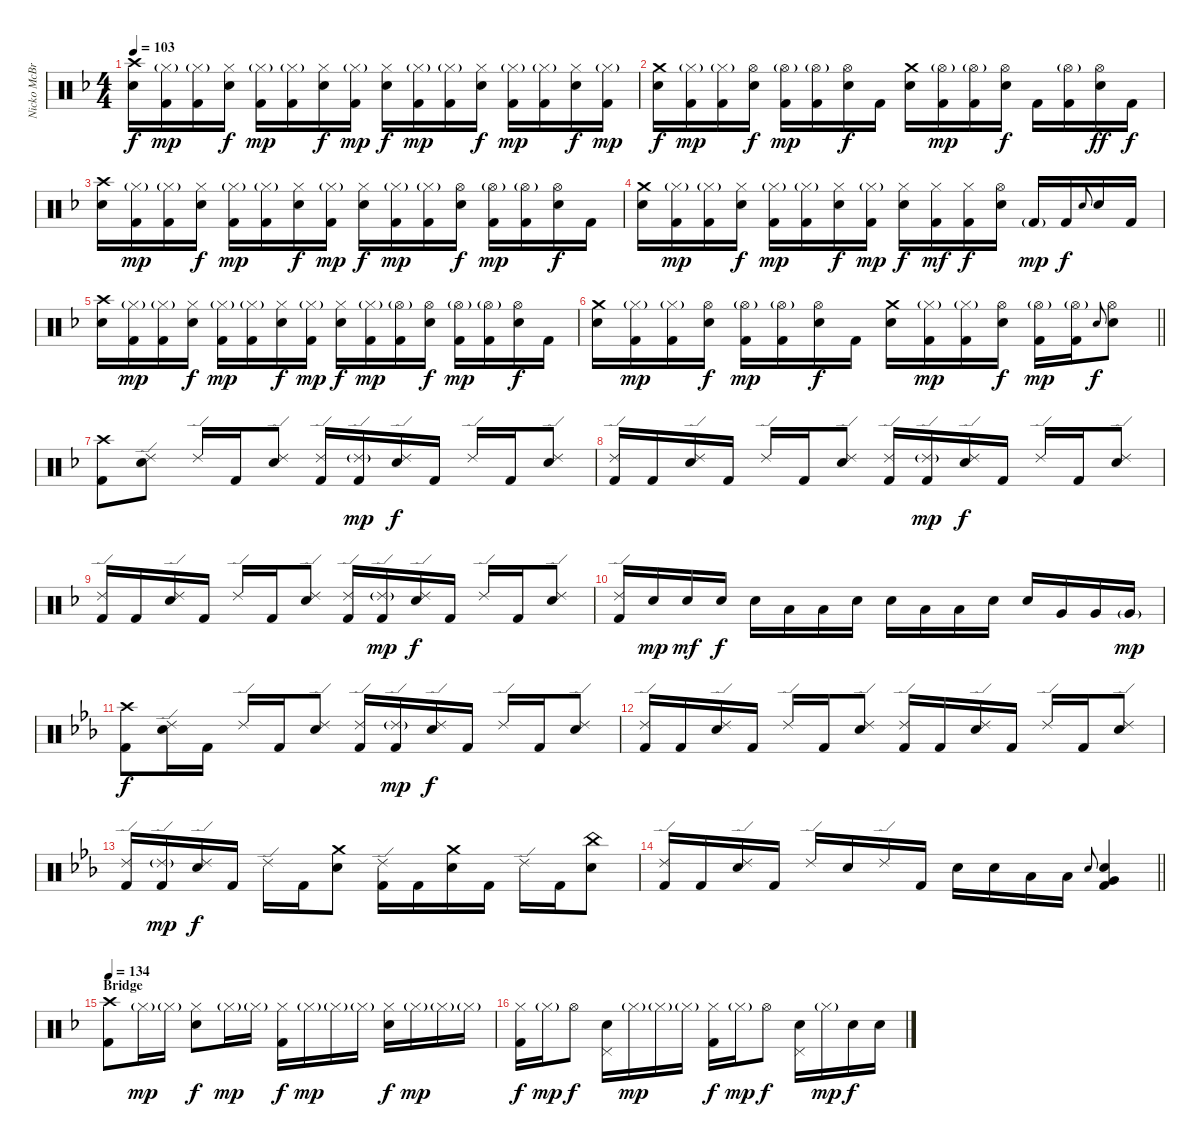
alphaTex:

\track ("Nicko McBrain" "Nicko McBr") {instrument percussion}
\staff {score}
\articulation defaults
\ts (4 4)
\tempo 103
\clef neutral
\ks dminor
("Crash high (hit)" "Electric Snare (hit)").16{dy f} ("Hi-Hat (closed)"{g} "Kick (hit) 2").16{dy mp} ("Hi-Hat (closed)"{g} "Kick (hit) 2").16 ("Hi-Hat (closed)" "Electric Snare (hit)").16{dy f} ("Hi-Hat (closed)"{g} "Kick (hit) 2").16{dy mp} ("Hi-Hat (closed)"{g} "Kick (hit) 2").16 ("Hi-Hat (closed)" "Electric Snare (hit)").16{dy f} ("Hi-Hat (closed)"{g} "Kick (hit) 2").16{dy mp} ("Hi-Hat (closed)" "Electric Snare (hit)").16{dy f} ("Hi-Hat (closed)"{g} "Kick (hit) 2").16{dy mp} ("Hi-Hat (closed)"{g} "Kick (hit) 2").16 ("Hi-Hat (closed)" "Electric Snare (hit)").16{dy f} ("Hi-Hat (closed)"{g} "Kick (hit) 2").16{dy mp} ("Hi-Hat (closed)"{g} "Kick (hit) 2").16 ("Hi-Hat (closed)" "Electric Snare (hit)").16{dy f} ("Hi-Hat (closed)"{g} "Kick (hit) 2").16{dy mp} |
("Crash medium (hit)" "Electric Snare (hit)").16{dy f} ("Hi-Hat (closed)"{g} "Kick (hit) 2").16{dy mp} ("Hi-Hat (closed)"{g} "Kick (hit) 2").16 ("Hi-Hat (open)" "Electric Snare (hit)").16{dy f} ("Hi-Hat (open)"{g} "Kick (hit) 2").16{dy mp} ("Hi-Hat (open)"{g} "Kick (hit) 2").16 ("Hi-Hat (open)" "Electric Snare (hit)").16{dy f} "Kick (hit) 2".16 ("Crash medium (hit)" "Electric Snare (hit)").16 ("Hi-Hat (open)"{g} "Kick (hit) 2").16{dy mp} ("Hi-Hat (open)"{g} "Kick (hit) 2").16 ("Hi-Hat (open)" "Electric Snare (hit)").16{dy f} "Kick (hit) 2".16 ("Hi-Hat (open)"{g} "Kick (hit) 2").16 ("Hi-Hat (open)" "Electric Snare (hit)").16{dy ff} "Kick (hit) 2".16{dy f} |
("Crash high (hit)" "Electric Snare (hit)").16 ("Hi-Hat (closed)"{g} "Kick (hit) 2").16{dy mp} ("Hi-Hat (closed)"{g} "Kick (hit) 2").16 ("Hi-Hat (closed)" "Electric Snare (hit)").16{dy f} ("Hi-Hat (closed)"{g} "Kick (hit) 2").16{dy mp} ("Hi-Hat (closed)"{g} "Kick (hit) 2").16 ("Hi-Hat (closed)" "Electric Snare (hit)").16{dy f} ("Hi-Hat (closed)"{g} "Kick (hit) 2").16{dy mp} ("Hi-Hat (closed)" "Electric Snare (hit)").16{dy f} ("Hi-Hat (closed)"{g} "Kick (hit) 2").16{dy mp} ("Hi-Hat (closed)"{g} "Kick (hit) 2").16 ("Hi-Hat (open)" "Electric Snare (hit)").16{dy f} ("Hi-Hat (open)"{g} "Kick (hit) 2").16{dy mp} ("Hi-Hat (open)"{g} "Kick (hit) 2").16 ("Hi-Hat (open)" "Electric Snare (hit)").16{dy f} "Kick (hit) 2".16 |
("Crash medium (hit)" "Electric Snare (hit)").16 ("Hi-Hat (closed)"{g} "Kick (hit) 2").16{dy mp} ("Hi-Hat (closed)"{g} "Kick (hit) 2").16 ("Hi-Hat (closed)" "Electric Snare (hit)").16{dy f} ("Hi-Hat (closed)"{g} "Kick (hit) 2").16{dy mp} ("Hi-Hat (closed)"{g} "Kick (hit) 2").16 ("Hi-Hat (closed)" "Electric Snare (hit)").16{dy f} ("Hi-Hat (closed)"{g} "Kick (hit) 2").16{dy mp} ("Hi-Hat (closed)" "Electric Snare (hit)").16{dy f} ("Hi-Hat (closed)" "Kick (hit) 2").16{dy mf} ("Hi-Hat (closed)" "Kick (hit) 2").16{dy f} ("Hi-Hat (open)" "Electric Snare (hit)").16 "Kick (hit) 2"{g}.16{dy mp} "Kick (hit) 2".16{dy f} "Electric Snare (hit)".8{gr onbeat} "Electric Snare (hit)".16 "Kick (hit) 2".16 |
("Crash high (hit)" "Electric Snare (hit)").16 ("Hi-Hat (closed)"{g} "Kick (hit) 2").16{dy mp} ("Hi-Hat (closed)"{g} "Kick (hit) 2").16 ("Hi-Hat (closed)" "Electric Snare (hit)").16{dy f} ("Hi-Hat (closed)"{g} "Kick (hit) 2").16{dy mp} ("Hi-Hat (closed)"{g} "Kick (hit) 2").16 ("Hi-Hat (closed)" "Electric Snare (hit)").16{dy f} ("Hi-Hat (closed)"{g} "Kick (hit) 2").16{dy mp} ("Hi-Hat (closed)" "Electric Snare (hit)").16{dy f} ("Hi-Hat (closed)"{g} "Kick (hit) 2").16{dy mp} ("Hi-Hat (open)"{g} "Kick (hit) 2").16 ("Hi-Hat (open)" "Electric Snare (hit)").16{dy f} ("Hi-Hat (open)"{g} "Kick (hit) 2").16{dy mp} ("Hi-Hat (open)"{g} "Kick (hit) 2").16 ("Hi-Hat (open)" "Electric Snare (hit)").16{dy f} "Kick (hit) 2".16 |
\barLineRight lightlight
("Crash medium (hit)" "Electric Snare (hit)").16 ("Hi-Hat (closed)"{g} "Kick (hit) 2").16{dy mp} ("Hi-Hat (closed)"{g} "Kick (hit) 2").16 ("Hi-Hat (open)" "Electric Snare (hit)").16{dy f} ("Hi-Hat (open)"{g} "Kick (hit) 2").16{dy mp} ("Hi-Hat (open)"{g} "Kick (hit) 2").16 ("Hi-Hat (open)" "Electric Snare (hit)").16{dy f} "Kick (hit) 2".16 ("Crash medium (hit)" "Electric Snare (hit)").16 ("Hi-Hat (closed)"{g} "Kick (hit) 2").16{dy mp} ("Hi-Hat (closed)"{g} "Kick (hit) 2").16 ("Hi-Hat (open)" "Electric Snare (hit)").16{dy f} ("Hi-Hat (open)"{g} "Kick (hit) 2").16{dy mp} ("Hi-Hat (open)"{g} "Kick (hit) 2").16 "Electric Snare (hit)".8{gr onbeat dy f} ("Hi-Hat (open)" "Electric Snare (hit)").8 |
\section ("" "")
("Crash high (hit)" "Kick (hit) 2").8 ("Ride (edge) 2" "Electric Snare (hit)").8 "Ride (edge) 2".16 "Kick (hit) 2".16 ("Ride (edge) 2" "Electric Snare (hit)").8 ("Ride (edge) 2" "Kick (hit) 2").16 ("Ride (edge) 2"{g} "Kick (hit) 2").16{dy mp} ("Ride (edge) 2" "Electric Snare (hit)").16{dy f} "Kick (hit) 2".16 "Ride (edge) 2".16 "Kick (hit) 2".16 ("Ride (edge) 2" "Electric Snare (hit)").8 |
("Ride (edge) 2" "Kick (hit) 2").16 "Kick (hit) 2".16 ("Ride (edge) 2" "Electric Snare (hit)").16 "Kick (hit) 2".16 "Ride (edge) 2".16 "Kick (hit) 2".16 ("Ride (edge) 2" "Electric Snare (hit)").8 ("Ride (edge) 2" "Kick (hit) 2").16 ("Ride (edge) 2"{g} "Kick (hit) 2").16{dy mp} ("Ride (edge) 2" "Electric Snare (hit)").16{dy f} "Kick (hit) 2".16 "Ride (edge) 2".16 "Kick (hit) 2".16 ("Ride (edge) 2" "Electric Snare (hit)").8 |
("Ride (edge) 2" "Kick (hit) 2").16 "Kick (hit) 2".16 ("Ride (edge) 2" "Electric Snare (hit)").16 "Kick (hit) 2".16 "Ride (edge) 2".16 "Kick (hit) 2".16 ("Ride (edge) 2" "Electric Snare (hit)").8 ("Ride (edge) 2" "Kick (hit) 2").16 ("Ride (edge) 2"{g} "Kick (hit) 2").16{dy mp} ("Ride (edge) 2" "Electric Snare (hit)").16{dy f} "Kick (hit) 2".16 "Ride (edge) 2".16 "Kick (hit) 2".16 ("Ride (edge) 2" "Electric Snare (hit)").8 |
("Ride (edge) 2" "Kick (hit) 2").16 "Electric Snare (hit)".16{dy mp} "Electric Snare (hit)".16{dy mf} "Electric Snare (hit)".16{dy f} "Electric Snare (hit)".16 "Low Tom (hit)".16 "Low Tom (hit)".16 "Electric Snare (hit)".16 "Electric Snare (hit)".16 "Low Tom (hit)".16 "Low Tom (hit)".16 "Electric Snare (hit)".16 "Electric Snare (hit)".16 "Very Low Tom (hit)".16 "Very Low Tom (hit)".16 "Very Low Tom (hit)"{g}.16{dy mp} |
\ks cminor
("Crash high (hit)" "Kick (hit) 2").8{dy f} ("Ride (edge) 2" "Electric Snare (hit)").16 "Kick (hit) 2".16 "Ride (edge) 2".16 "Kick (hit) 2".16 ("Ride (edge) 2" "Electric Snare (hit)").8 ("Ride (edge) 2" "Kick (hit) 2").16 ("Ride (edge) 2"{g} "Kick (hit) 2").16{dy mp} ("Ride (edge) 2" "Electric Snare (hit)").16{dy f} "Kick (hit) 2".16 "Ride (edge) 2".16 "Kick (hit) 2".16 ("Ride (edge) 2" "Electric Snare (hit)").8 |
("Ride (edge) 2" "Kick (hit) 2").16 "Kick (hit) 2".16 ("Ride (edge) 2" "Electric Snare (hit)").16 "Kick (hit) 2".16 "Ride (edge) 2".16 "Kick (hit) 2".16 ("Ride (edge) 2" "Electric Snare (hit)").8 ("Ride (edge) 2" "Kick (hit) 2").16 "Kick (hit) 2".16 ("Ride (edge) 2" "Electric Snare (hit)").16 "Kick (hit) 2".16 "Ride (edge) 2".16 "Kick (hit) 2".16 ("Ride (edge) 2" "Electric Snare (hit)").8 |
("Ride (edge) 2" "Kick (hit) 2").16 ("Ride (edge) 2"{g} "Kick (hit) 2").16{dy mp} ("Ride (edge) 2" "Electric Snare (hit)").16{dy f} "Kick (hit) 2".16 "Ride (edge) 2".16 "Kick (hit) 2".16 ("Crash medium (hit)" "Electric Snare (hit)").8 ("Ride (edge) 2" "Kick (hit) 2").16 "Kick (hit) 2".16 ("Crash medium (hit)" "Electric Snare (hit)").16 "Kick (hit) 2".16 "Ride (edge) 2".16 "Kick (hit) 2".16 ("China (hit)" "Electric Snare (hit)").8 |
\barLineRight lightlight
("Ride (edge) 2" "Kick (hit) 2").16 "Kick (hit) 2".16 ("Ride (edge) 2" "Electric Snare (hit)").16 "Kick (hit) 2".16 "Ride (edge) 2".16 "Electric Snare (hit)".16 "Ride (edge) 2".16 "Kick (hit) 2".16 "Electric Snare (hit)".16 "Electric Snare (hit)".16 "Low Tom (hit)".16 "Low Tom (hit)".16 "Electric Snare (hit)".8{gr onbeat} ("Very Low Tom (hit)" "Electric Snare (hit)" "Kick (hit) 2").4 |
\section ("" "Bridge")
\tempo 134
\ks dminor
("Crash high (hit)" "Kick (hit) 2").8 "Hi-Hat (closed)"{g}.16{dy mp} "Hi-Hat (closed)"{g}.16 ("Hi-Hat (closed)" "Electric Snare (hit)").8{dy f} "Hi-Hat (closed)"{g}.16{dy mp} "Hi-Hat (closed)"{g}.16 ("Hi-Hat (closed)" "Kick (hit) 2").16{dy f} "Hi-Hat (closed)"{g}.16{dy mp} "Hi-Hat (closed)"{g}.16 "Hi-Hat (closed)"{g}.16 ("Hi-Hat (closed)" "Electric Snare (hit)").16{dy f} "Hi-Hat (closed)"{g}.16{dy mp} "Hi-Hat (closed)"{g}.16 "Hi-Hat (closed)"{g}.16 |
("Hi-Hat (closed)" "Kick (hit) 2").16{dy f} "Hi-Hat (closed)"{g}.16{dy mp} "Hi-Hat (open)".8{dy f} ("Pedal Hi-Hat (hit)" "Electric Snare (hit)").16 "Hi-Hat (closed)"{g}.16{dy mp} "Hi-Hat (closed)"{g}.16 "Hi-Hat (closed)"{g}.16 ("Hi-Hat (closed)" "Kick (hit) 2").16{dy f} "Hi-Hat (closed)"{g}.16{dy mp} "Hi-Hat (open)".8{dy f} ("Pedal Hi-Hat (hit)" "Electric Snare (hit)").16 "Hi-Hat (closed)"{g}.16{dy mp} "Electric Snare (hit)".16{dy f} "Electric Snare (hit)".16
